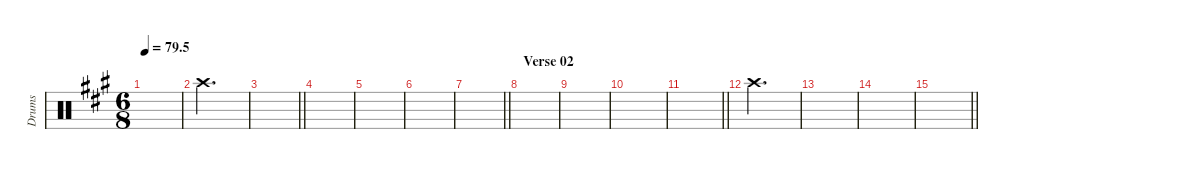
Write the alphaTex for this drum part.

\defaultSystemsLayout 4
\hideDynamics
\bracketExtendMode nobrackets
\otherSystemsTrackNameOrientation horizontal
\track ("Left crash" "Drums") {instrument percussion}
\staff {score}
\articulation defaults
\ts (6 8)
\tempo
79.5
\accidentals auto
\clef neutral
\ottava regular
\simile none
\scale
0.333333
\ks a
|
\scale
0.333333 "Crash high (hit)"{acc forcenatural}.2{d} |
\scale
0.333333
\barLineRight lightlight
|
\scale
0.333333 |
\scale
0.333333 |
\scale
0.333333 |
\scale
0.333333
\barLineRight lightlight
|
\section ("" "Verse 02")
\scale
0.333333 |
\scale
0.333333 |
\scale
0.333333 |
\scale
0.333333
\barLineRight lightlight
|
\scale
0.333333 "Crash high (hit)"{acc forcenatural}.2{d} |
\scale
0.333333 |
\scale
0.333333 |
\scale
0.333333
\barLineRight lightlight
|
\scale
0.333333
